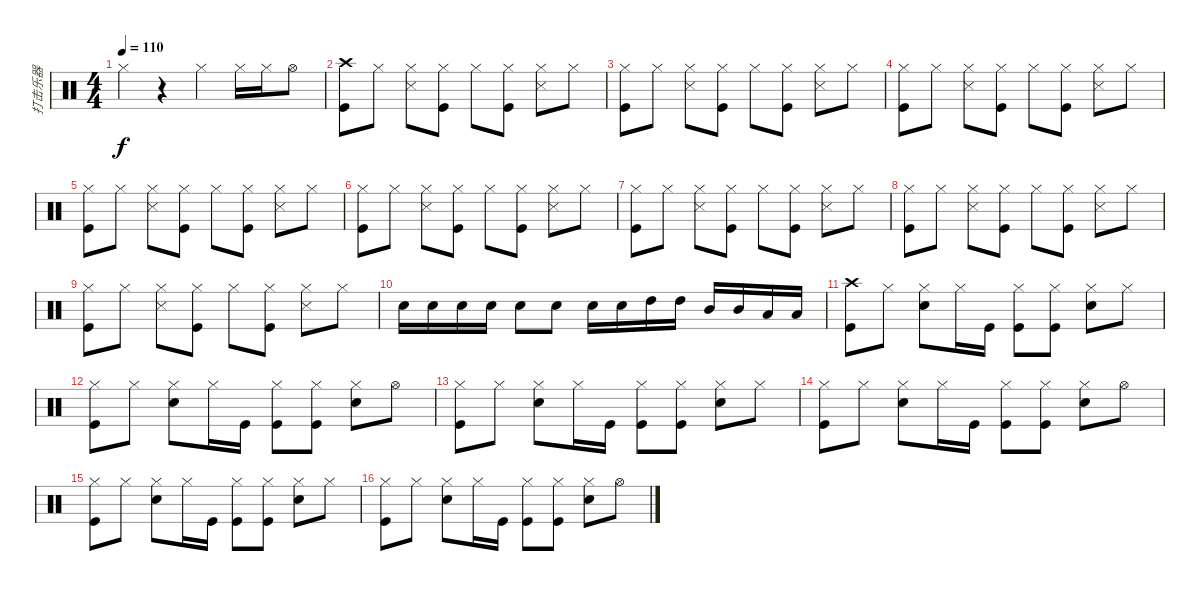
\track ("打击乐器" "打击乐器") {instrument percussion}
\staff {score}
\articulation defaults
\ts (4 4)
\tempo 110
\clef neutral
\ks c "Hi-Hat (closed)".4{dy f}
r.4 "Hi-Hat (closed)".4 "Hi-Hat (closed)".16 "Hi-Hat (closed)".16 "Hi-Hat (open)".8 |
("Crash high (hit)" "Kick (hit)").8 "Hi-Hat (closed)".8 ("Hi-Hat (closed)" "Metronome (hit)").8 ("Hi-Hat (closed)" "Kick (hit)").8 "Hi-Hat (closed)".8 ("Hi-Hat (closed)" "Kick (hit)").8 ("Hi-Hat (closed)" "Metronome (hit)").8 "Hi-Hat (closed)".8 |
("Hi-Hat (closed)" "Kick (hit)").8 "Hi-Hat (closed)".8 ("Hi-Hat (closed)" "Metronome (hit)").8 ("Hi-Hat (closed)" "Kick (hit)").8 "Hi-Hat (closed)".8 ("Hi-Hat (closed)" "Kick (hit)").8 ("Hi-Hat (closed)" "Metronome (hit)").8 "Hi-Hat (closed)".8 |
("Hi-Hat (closed)" "Kick (hit)").8 "Hi-Hat (closed)".8 ("Hi-Hat (closed)" "Metronome (hit)").8 ("Hi-Hat (closed)" "Kick (hit)").8 "Hi-Hat (closed)".8 ("Hi-Hat (closed)" "Kick (hit)").8 ("Hi-Hat (closed)" "Metronome (hit)").8 "Hi-Hat (closed)".8 |
("Hi-Hat (closed)" "Kick (hit)").8 "Hi-Hat (closed)".8 ("Hi-Hat (closed)" "Metronome (hit)").8 ("Hi-Hat (closed)" "Kick (hit)").8 "Hi-Hat (closed)".8 ("Hi-Hat (closed)" "Kick (hit)").8 ("Hi-Hat (closed)" "Metronome (hit)").8 "Hi-Hat (closed)".8 |
("Hi-Hat (closed)" "Kick (hit)").8 "Hi-Hat (closed)".8 ("Hi-Hat (closed)" "Metronome (hit)").8 ("Hi-Hat (closed)" "Kick (hit)").8 "Hi-Hat (closed)".8 ("Hi-Hat (closed)" "Kick (hit)").8 ("Hi-Hat (closed)" "Metronome (hit)").8 "Hi-Hat (closed)".8 |
("Hi-Hat (closed)" "Kick (hit)").8 "Hi-Hat (closed)".8 ("Hi-Hat (closed)" "Metronome (hit)").8 ("Hi-Hat (closed)" "Kick (hit)").8 "Hi-Hat (closed)".8 ("Hi-Hat (closed)" "Kick (hit)").8 ("Hi-Hat (closed)" "Metronome (hit)").8 "Hi-Hat (closed)".8 |
("Hi-Hat (closed)" "Kick (hit)").8 "Hi-Hat (closed)".8 ("Hi-Hat (closed)" "Metronome (hit)").8 ("Hi-Hat (closed)" "Kick (hit)").8 "Hi-Hat (closed)".8 ("Hi-Hat (closed)" "Kick (hit)").8 ("Hi-Hat (closed)" "Metronome (hit)").8 "Hi-Hat (closed)".8 |
("Hi-Hat (closed)" "Kick (hit)").8 "Hi-Hat (closed)".8 ("Hi-Hat (closed)" "Metronome (hit)").8 ("Hi-Hat (closed)" "Kick (hit)").8 "Hi-Hat (closed)".8 ("Hi-Hat (closed)" "Kick (hit)").8 ("Hi-Hat (closed)" "Metronome (hit)").8 "Hi-Hat (closed)".8 |
"Snare (hit) 2".16 "Snare (hit) 2".16 "Snare (hit) 2".16 "Snare (hit) 2".16 "Snare (hit) 2".8 "Snare (hit) 2".8 "Snare (hit) 2".16 "Snare (hit) 2".16 "High Tom (hit)".16 "High Tom (hit)".16 "Mid Tom (hit)".16 "Mid Tom (hit)".16 "Low Tom (hit)".16 "Low Tom (hit)".16 |
("Crash high (hit)" "Kick (hit)").8 "Hi-Hat (closed)".8 ("Hi-Hat (closed)" "Snare (hit) 2").8 "Hi-Hat (closed)".16 "Kick (hit)".16 ("Hi-Hat (closed)" "Kick (hit)").8 ("Hi-Hat (closed)" "Kick (hit)").8 ("Hi-Hat (closed)" "Snare (hit) 2").8 "Hi-Hat (closed)".8 |
("Hi-Hat (closed)" "Kick (hit)").8 "Hi-Hat (closed)".8 ("Hi-Hat (closed)" "Snare (hit) 2").8 "Hi-Hat (closed)".16 "Kick (hit)".16 ("Hi-Hat (closed)" "Kick (hit)").8 ("Hi-Hat (closed)" "Kick (hit)").8 ("Hi-Hat (closed)" "Snare (hit) 2").8 "Hi-Hat (open)".8 |
("Hi-Hat (closed)" "Kick (hit)").8 "Hi-Hat (closed)".8 ("Hi-Hat (closed)" "Snare (hit) 2").8 "Hi-Hat (closed)".16 "Kick (hit)".16 ("Hi-Hat (closed)" "Kick (hit)").8 ("Hi-Hat (closed)" "Kick (hit)").8 ("Hi-Hat (closed)" "Snare (hit) 2").8 "Hi-Hat (closed)".8 |
("Hi-Hat (closed)" "Kick (hit)").8 "Hi-Hat (closed)".8 ("Hi-Hat (closed)" "Snare (hit) 2").8 "Hi-Hat (closed)".16 "Kick (hit)".16 ("Hi-Hat (closed)" "Kick (hit)").8 ("Hi-Hat (closed)" "Kick (hit)").8 ("Hi-Hat (closed)" "Snare (hit) 2").8 "Hi-Hat (open)".8 |
("Hi-Hat (closed)" "Kick (hit)").8 "Hi-Hat (closed)".8 ("Hi-Hat (closed)" "Snare (hit) 2").8 "Hi-Hat (closed)".16 "Kick (hit)".16 ("Hi-Hat (closed)" "Kick (hit)").8 ("Hi-Hat (closed)" "Kick (hit)").8 ("Hi-Hat (closed)" "Snare (hit) 2").8 "Hi-Hat (closed)".8 |
("Hi-Hat (closed)" "Kick (hit)").8 "Hi-Hat (closed)".8 ("Hi-Hat (closed)" "Snare (hit) 2").8 "Hi-Hat (closed)".16 "Kick (hit)".16 ("Hi-Hat (closed)" "Kick (hit)").8 ("Hi-Hat (closed)" "Kick (hit)").8 ("Hi-Hat (closed)" "Snare (hit) 2").8 "Hi-Hat (open)".8
